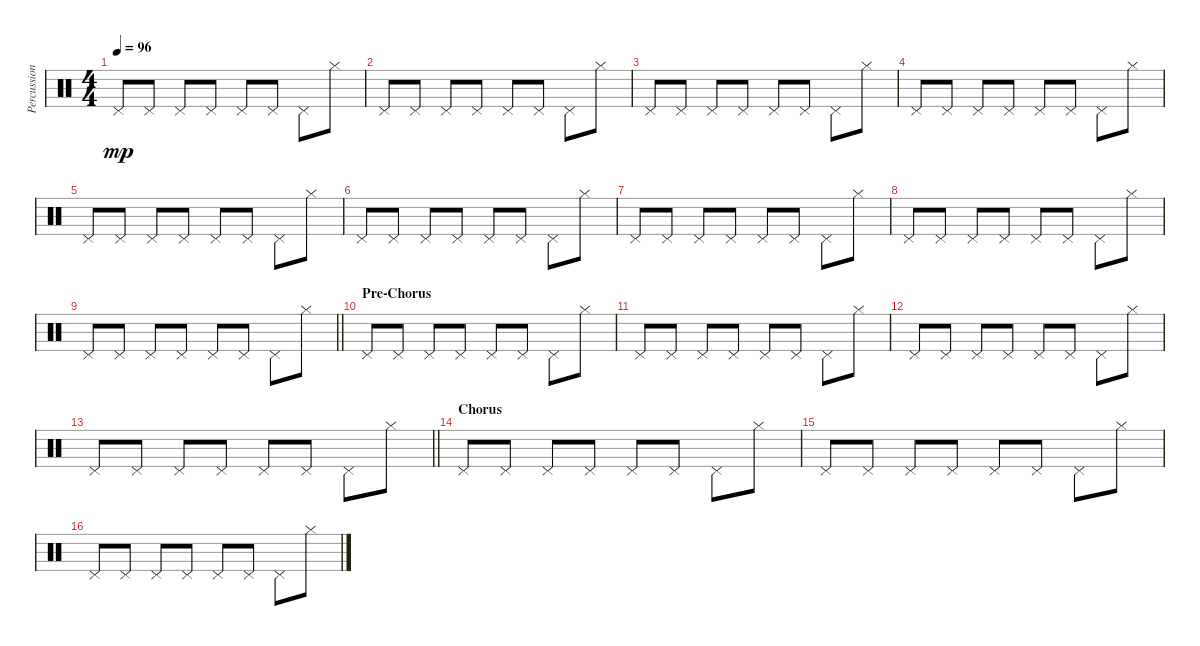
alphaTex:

\track ("Percussion" "Percussion") {instrument percussion}
\staff {score}
\articulation defaults
\ts (4 4)
\tempo 96
\clef neutral
\ks c "Pedal Hi-Hat (hit)".8{dy mp} "Pedal Hi-Hat (hit)".8 "Pedal Hi-Hat (hit)".8 "Pedal Hi-Hat (hit)".8 "Pedal Hi-Hat (hit)".8 "Pedal Hi-Hat (hit)".8 "Pedal Hi-Hat (hit)".8 "Hi-Hat (closed)".8
|
"Pedal Hi-Hat (hit)".8 "Pedal Hi-Hat (hit)".8 "Pedal Hi-Hat (hit)".8 "Pedal Hi-Hat (hit)".8 "Pedal Hi-Hat (hit)".8 "Pedal Hi-Hat (hit)".8 "Pedal Hi-Hat (hit)".8 "Hi-Hat (closed)".8 |
"Pedal Hi-Hat (hit)".8 "Pedal Hi-Hat (hit)".8 "Pedal Hi-Hat (hit)".8 "Pedal Hi-Hat (hit)".8 "Pedal Hi-Hat (hit)".8 "Pedal Hi-Hat (hit)".8 "Pedal Hi-Hat (hit)".8 "Hi-Hat (closed)".8 |
"Pedal Hi-Hat (hit)".8 "Pedal Hi-Hat (hit)".8 "Pedal Hi-Hat (hit)".8 "Pedal Hi-Hat (hit)".8 "Pedal Hi-Hat (hit)".8 "Pedal Hi-Hat (hit)".8 "Pedal Hi-Hat (hit)".8 "Hi-Hat (closed)".8 |
"Pedal Hi-Hat (hit)".8 "Pedal Hi-Hat (hit)".8 "Pedal Hi-Hat (hit)".8 "Pedal Hi-Hat (hit)".8 "Pedal Hi-Hat (hit)".8 "Pedal Hi-Hat (hit)".8 "Pedal Hi-Hat (hit)".8 "Hi-Hat (closed)".8 |
"Pedal Hi-Hat (hit)".8 "Pedal Hi-Hat (hit)".8 "Pedal Hi-Hat (hit)".8 "Pedal Hi-Hat (hit)".8 "Pedal Hi-Hat (hit)".8 "Pedal Hi-Hat (hit)".8 "Pedal Hi-Hat (hit)".8 "Hi-Hat (closed)".8 |
"Pedal Hi-Hat (hit)".8 "Pedal Hi-Hat (hit)".8 "Pedal Hi-Hat (hit)".8 "Pedal Hi-Hat (hit)".8 "Pedal Hi-Hat (hit)".8 "Pedal Hi-Hat (hit)".8 "Pedal Hi-Hat (hit)".8 "Hi-Hat (closed)".8 |
"Pedal Hi-Hat (hit)".8 "Pedal Hi-Hat (hit)".8 "Pedal Hi-Hat (hit)".8 "Pedal Hi-Hat (hit)".8 "Pedal Hi-Hat (hit)".8 "Pedal Hi-Hat (hit)".8 "Pedal Hi-Hat (hit)".8 "Hi-Hat (closed)".8 |
\barLineRight lightlight "Pedal Hi-Hat (hit)".8 "Pedal Hi-Hat (hit)".8 "Pedal Hi-Hat (hit)".8 "Pedal Hi-Hat (hit)".8 "Pedal Hi-Hat (hit)".8 "Pedal Hi-Hat (hit)".8 "Pedal Hi-Hat (hit)".8 "Hi-Hat (closed)".8
|
\section ("" "Pre-Chorus")
"Pedal Hi-Hat (hit)".8 "Pedal Hi-Hat (hit)".8 "Pedal Hi-Hat (hit)".8 "Pedal Hi-Hat (hit)".8 "Pedal Hi-Hat (hit)".8 "Pedal Hi-Hat (hit)".8 "Pedal Hi-Hat (hit)".8 "Hi-Hat (closed)".8 |
"Pedal Hi-Hat (hit)".8 "Pedal Hi-Hat (hit)".8 "Pedal Hi-Hat (hit)".8 "Pedal Hi-Hat (hit)".8 "Pedal Hi-Hat (hit)".8 "Pedal Hi-Hat (hit)".8 "Pedal Hi-Hat (hit)".8 "Hi-Hat (closed)".8 |
"Pedal Hi-Hat (hit)".8 "Pedal Hi-Hat (hit)".8 "Pedal Hi-Hat (hit)".8 "Pedal Hi-Hat (hit)".8 "Pedal Hi-Hat (hit)".8 "Pedal Hi-Hat (hit)".8 "Pedal Hi-Hat (hit)".8 "Hi-Hat (closed)".8 |
\barLineRight lightlight "Pedal Hi-Hat (hit)".8 "Pedal Hi-Hat (hit)".8 "Pedal Hi-Hat (hit)".8 "Pedal Hi-Hat (hit)".8 "Pedal Hi-Hat (hit)".8 "Pedal Hi-Hat (hit)".8 "Pedal Hi-Hat (hit)".8 "Hi-Hat (closed)".8
|
\section ("" "Chorus")
"Pedal Hi-Hat (hit)".8 "Pedal Hi-Hat (hit)".8 "Pedal Hi-Hat (hit)".8 "Pedal Hi-Hat (hit)".8 "Pedal Hi-Hat (hit)".8 "Pedal Hi-Hat (hit)".8 "Pedal Hi-Hat (hit)".8 "Hi-Hat (closed)".8 |
"Pedal Hi-Hat (hit)".8 "Pedal Hi-Hat (hit)".8 "Pedal Hi-Hat (hit)".8 "Pedal Hi-Hat (hit)".8 "Pedal Hi-Hat (hit)".8 "Pedal Hi-Hat (hit)".8 "Pedal Hi-Hat (hit)".8 "Hi-Hat (closed)".8 |
"Pedal Hi-Hat (hit)".8 "Pedal Hi-Hat (hit)".8 "Pedal Hi-Hat (hit)".8 "Pedal Hi-Hat (hit)".8 "Pedal Hi-Hat (hit)".8 "Pedal Hi-Hat (hit)".8 "Pedal Hi-Hat (hit)".8 "Hi-Hat (closed)".8
